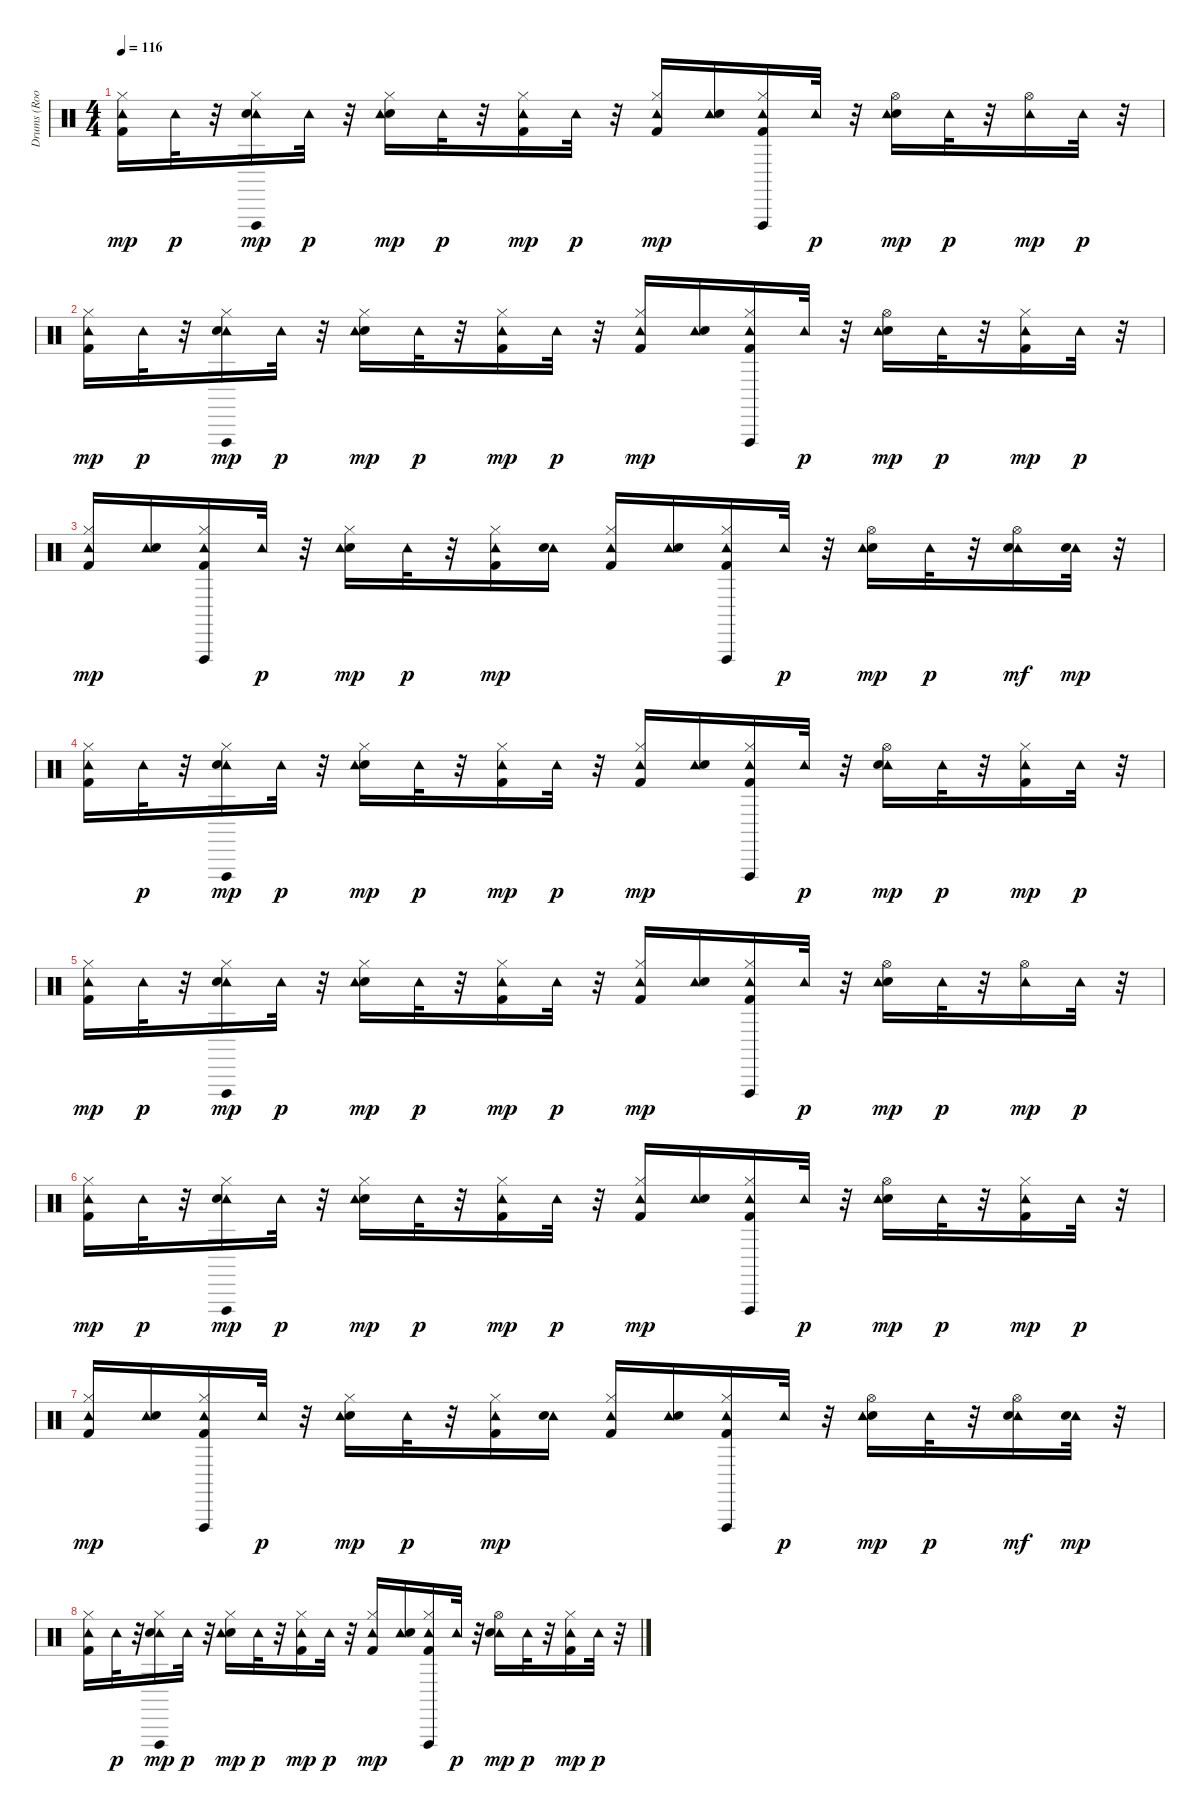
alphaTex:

\track ("Drums (Room Kit)    " "Drums (Roo") {instrument percussion}
\staff {score}
\articulation defaults
\ts (4 4)
\tempo 116
\clef neutral
\ks c
("Hi-Hat (closed)" "Kick (hit) 2" "Tambourine (hit)").16{dy mp} "Tambourine (hit)".32{dy p} r.32 ("Hi-Hat (closed)" "Tambourine (hit)" "Vibraslap (hit)" "Snare (hit) 2").16{dy mp} "Tambourine (hit)".32{dy p} r.32 ("Hi-Hat (closed)" "Snare (hit) 2" "Tambourine (hit)").16{dy mp} "Tambourine (hit)".32{dy p} r.32 ("Kick (hit) 2" "Tambourine (hit)" "Hi-Hat (closed)").16{dy mp} "Tambourine (hit)".32{dy p} r.32 ("Hi-Hat (closed)" "Tambourine (hit)" "Kick (hit) 2").16{dy mp} ("Tambourine (hit)" "Snare (hit) 2").16 ("Kick (hit) 2" "Tambourine (hit)" "Vibraslap (hit)" "Hi-Hat (closed)").16 "Tambourine (hit)".32{dy p} r.32 ("Snare (hit) 2" "Tambourine (hit)" "Hi-Hat (open)").16{dy mp} "Tambourine (hit)".32{dy p} r.32 ("Tambourine (hit)" "Hi-Hat (open)").16{dy mp} "Tambourine (hit)".32{dy p} r.32 |
("Kick (hit) 2" "Hi-Hat (closed)" "Tambourine (hit)").16{dy mp} "Tambourine (hit)".32{dy p} r.32 ("Hi-Hat (closed)" "Tambourine (hit)" "Vibraslap (hit)" "Snare (hit) 2").16{dy mp} "Tambourine (hit)".32{dy p} r.32 ("Snare (hit) 2" "Hi-Hat (closed)" "Tambourine (hit)").16{dy mp} "Tambourine (hit)".32{dy p} r.32 ("Kick (hit) 2" "Tambourine (hit)" "Hi-Hat (closed)").16{dy mp} "Tambourine (hit)".32{dy p} r.32 ("Hi-Hat (closed)" "Tambourine (hit)" "Kick (hit) 2").16{dy mp} ("Tambourine (hit)" "Snare (hit) 2").16 ("Kick (hit) 2" "Tambourine (hit)" "Vibraslap (hit)" "Hi-Hat (closed)").16 "Tambourine (hit)".32{dy p} r.32 ("Snare (hit) 2" "Tambourine (hit)" "Hi-Hat (open)").16{dy mp} "Tambourine (hit)".32{dy p} r.32 ("Hi-Hat (closed)" "Tambourine (hit)" "Kick (hit) 2").16{dy mp} "Tambourine (hit)".32{dy p} r.32 |
("Hi-Hat (closed)" "Kick (hit) 2" "Tambourine (hit)").16{dy mp} ("Tambourine (hit)" "Snare (hit) 2").16 ("Hi-Hat (closed)" "Tambourine (hit)" "Vibraslap (hit)" "Kick (hit) 2").16 "Tambourine (hit)".32{dy p} r.32 ("Snare (hit) 2" "Tambourine (hit)" "Hi-Hat (closed)").16{dy mp} "Tambourine (hit)".32{dy p} r.32 ("Kick (hit) 2" "Tambourine (hit)" "Hi-Hat (closed)").16{dy mp} ("Tambourine (hit)" "Snare (hit) 2").16 ("Hi-Hat (closed)" "Tambourine (hit)" "Kick (hit) 2").16 ("Tambourine (hit)" "Snare (hit) 2").16 ("Kick (hit) 2" "Tambourine (hit)" "Vibraslap (hit)" "Hi-Hat (closed)").16 "Tambourine (hit)".32{dy p} r.32 ("Snare (hit) 2" "Tambourine (hit)" "Hi-Hat (open)").16{dy mp} "Tambourine (hit)".32{dy p} r.32 ("Tambourine (hit)" "Hi-Hat (open)" "Snare (hit) 2").16{dy mf} ("Tambourine (hit)" "Snare (hit) 2").32{dy mp} r.32 |
("Kick (hit) 2" "Hi-Hat (closed)" "Tambourine (hit)").16 "Tambourine (hit)".32{dy p} r.32 ("Hi-Hat (closed)" "Tambourine (hit)" "Vibraslap (hit)" "Snare (hit) 2").16{dy mp} "Tambourine (hit)".32{dy p} r.32 ("Snare (hit) 2" "Hi-Hat (closed)" "Tambourine (hit)").16{dy mp} "Tambourine (hit)".32{dy p} r.32 ("Kick (hit) 2" "Tambourine (hit)" "Hi-Hat (closed)").16{dy mp} "Tambourine (hit)".32{dy p} r.32 ("Hi-Hat (closed)" "Tambourine (hit)" "Kick (hit) 2").16{dy mp} ("Tambourine (hit)" "Snare (hit) 2").16 ("Tambourine (hit)" "Vibraslap (hit)" "Hi-Hat (closed)" "Kick (hit) 2").16 "Tambourine (hit)".32{dy p} r.32 ("Tambourine (hit)" "Hi-Hat (open)" "Snare (hit) 2").16{dy mp} "Tambourine (hit)".32{dy p} r.32 ("Hi-Hat (closed)" "Tambourine (hit)" "Kick (hit) 2").16{dy mp} "Tambourine (hit)".32{dy p} r.32 |
("Hi-Hat (closed)" "Kick (hit) 2" "Tambourine (hit)").16{dy mp} "Tambourine (hit)".32{dy p} r.32 ("Hi-Hat (closed)" "Tambourine (hit)" "Vibraslap (hit)" "Snare (hit) 2").16{dy mp} "Tambourine (hit)".32{dy p} r.32 ("Hi-Hat (closed)" "Snare (hit) 2" "Tambourine (hit)").16{dy mp} "Tambourine (hit)".32{dy p} r.32 ("Kick (hit) 2" "Tambourine (hit)" "Hi-Hat (closed)").16{dy mp} "Tambourine (hit)".32{dy p} r.32 ("Hi-Hat (closed)" "Tambourine (hit)" "Kick (hit) 2").16{dy mp} ("Tambourine (hit)" "Snare (hit) 2").16 ("Kick (hit) 2" "Tambourine (hit)" "Vibraslap (hit)" "Hi-Hat (closed)").16 "Tambourine (hit)".32{dy p} r.32 ("Snare (hit) 2" "Tambourine (hit)" "Hi-Hat (open)").16{dy mp} "Tambourine (hit)".32{dy p} r.32 ("Tambourine (hit)" "Hi-Hat (open)").16{dy mp} "Tambourine (hit)".32{dy p} r.32 |
("Kick (hit) 2" "Hi-Hat (closed)" "Tambourine (hit)").16{dy mp} "Tambourine (hit)".32{dy p} r.32 ("Hi-Hat (closed)" "Tambourine (hit)" "Vibraslap (hit)" "Snare (hit) 2").16{dy mp} "Tambourine (hit)".32{dy p} r.32 ("Snare (hit) 2" "Hi-Hat (closed)" "Tambourine (hit)").16{dy mp} "Tambourine (hit)".32{dy p} r.32 ("Kick (hit) 2" "Tambourine (hit)" "Hi-Hat (closed)").16{dy mp} "Tambourine (hit)".32{dy p} r.32 ("Hi-Hat (closed)" "Tambourine (hit)" "Kick (hit) 2").16{dy mp} ("Tambourine (hit)" "Snare (hit) 2").16 ("Kick (hit) 2" "Tambourine (hit)" "Vibraslap (hit)" "Hi-Hat (closed)").16 "Tambourine (hit)".32{dy p} r.32 ("Snare (hit) 2" "Tambourine (hit)" "Hi-Hat (open)").16{dy mp} "Tambourine (hit)".32{dy p} r.32 ("Hi-Hat (closed)" "Tambourine (hit)" "Kick (hit) 2").16{dy mp} "Tambourine (hit)".32{dy p} r.32 |
("Hi-Hat (closed)" "Kick (hit) 2" "Tambourine (hit)").16{dy mp} ("Tambourine (hit)" "Snare (hit) 2").16 ("Hi-Hat (closed)" "Tambourine (hit)" "Vibraslap (hit)" "Kick (hit) 2").16 "Tambourine (hit)".32{dy p} r.32 ("Snare (hit) 2" "Tambourine (hit)" "Hi-Hat (closed)").16{dy mp} "Tambourine (hit)".32{dy p} r.32 ("Kick (hit) 2" "Tambourine (hit)" "Hi-Hat (closed)").16{dy mp} ("Tambourine (hit)" "Snare (hit) 2").16 ("Hi-Hat (closed)" "Tambourine (hit)" "Kick (hit) 2").16 ("Tambourine (hit)" "Snare (hit) 2").16 ("Kick (hit) 2" "Tambourine (hit)" "Vibraslap (hit)" "Hi-Hat (closed)").16 "Tambourine (hit)".32{dy p} r.32 ("Snare (hit) 2" "Tambourine (hit)" "Hi-Hat (open)").16{dy mp} "Tambourine (hit)".32{dy p} r.32 ("Tambourine (hit)" "Hi-Hat (open)" "Snare (hit) 2").16{dy mf} ("Tambourine (hit)" "Snare (hit) 2").32{dy mp} r.32 |
("Kick (hit) 2" "Hi-Hat (closed)" "Tambourine (hit)").16 "Tambourine (hit)".32{dy p} r.32 ("Hi-Hat (closed)" "Tambourine (hit)" "Vibraslap (hit)" "Snare (hit) 2").16{dy mp} "Tambourine (hit)".32{dy p} r.32 ("Snare (hit) 2" "Hi-Hat (closed)" "Tambourine (hit)").16{dy mp} "Tambourine (hit)".32{dy p} r.32 ("Kick (hit) 2" "Tambourine (hit)" "Hi-Hat (closed)").16{dy mp} "Tambourine (hit)".32{dy p} r.32 ("Hi-Hat (closed)" "Tambourine (hit)" "Kick (hit) 2").16{dy mp} ("Tambourine (hit)" "Snare (hit) 2").16 ("Tambourine (hit)" "Vibraslap (hit)" "Hi-Hat (closed)" "Kick (hit) 2").16 "Tambourine (hit)".32{dy p} r.32 ("Tambourine (hit)" "Hi-Hat (open)" "Snare (hit) 2").16{dy mp} "Tambourine (hit)".32{dy p} r.32 ("Hi-Hat (closed)" "Tambourine (hit)" "Kick (hit) 2").16{dy mp} "Tambourine (hit)".32{dy p} r.32
